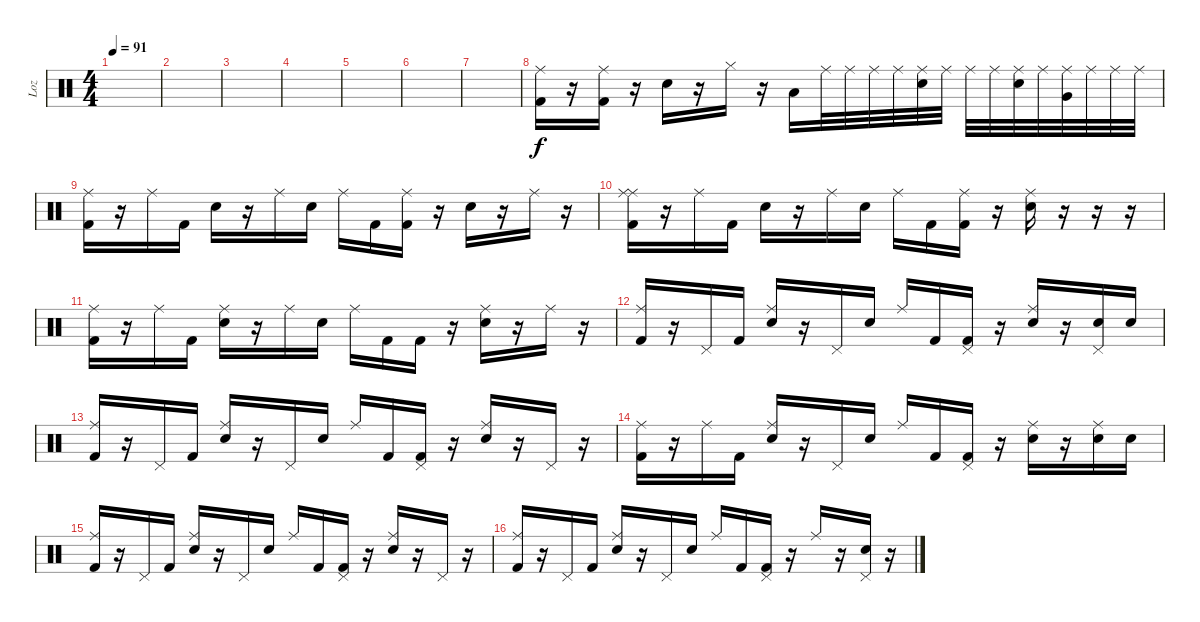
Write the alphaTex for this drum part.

\track ("Loz" "Loz") {instrument percussion}
\staff {score}
\articulation defaults
\ts (4 4)
\tempo 91
\clef neutral
\ks c
|
|
|
|
|
|
|
("Ride (middle)" "Kick (hit) 2").16 r.16 ("Ride (middle)" "Kick (hit) 2").16 r.16 "Electric Snare (hit)".16 r.16 "Hi-Hat (closed)".16 r.16 "Low Tom (hit)".16 "Ride (middle)".32 "Ride (middle)".32 "Ride (middle)".32 "Ride (middle)".32 ("Ride (middle)" "Electric Snare (hit)").32 "Ride (middle)".32 "Ride (middle)".32 "Ride (middle)".32 ("Ride (middle)" "Electric Snare (hit)").32 "Ride (middle)".32 ("Ride (middle)" "Very Low Tom (hit)").32 "Ride (middle)".32 "Ride (middle)".32 "Ride (middle)".32 |
("Ride (middle)" "Kick (hit) 2").16 r.16 "Ride (middle)".16 "Kick (hit) 2".16 "Electric Snare (hit)".16 r.16 "Ride (middle)".16 "Electric Snare (hit)".16 "Ride (middle)".16 "Kick (hit) 2".16 ("Ride (middle)" "Kick (hit) 2").16 r.16 "Electric Snare (hit)".16 r.16 "Ride (middle)".16 r.16 |
("Ride (middle)" "Ride (middle)" "Kick (hit) 2").16 r.16 "Ride (middle)".16 "Kick (hit) 2".16 "Electric Snare (hit)".16 r.16 "Ride (middle)".16 "Electric Snare (hit)".16 "Ride (middle)".16 "Kick (hit) 2".16 ("Ride (middle)" "Kick (hit) 2").16 r.16 ("Ride (middle)" "Electric Snare (hit)").16 r.16 r.16 r.16 |
("Ride (middle)" "Kick (hit) 2").16 r.16 "Ride (middle)".16 "Kick (hit) 2".16 ("Ride (middle)" "Electric Snare (hit)").16 r.16 "Ride (middle)".16 "Electric Snare (hit)".16 "Ride (middle)".16 "Kick (hit) 2".16 "Kick (hit) 2".16 r.16 ("Ride (middle)" "Electric Snare (hit)").16 r.16 "Ride (middle)".16 r.16 |
("Ride (middle)" "Kick (hit) 2").16 r.16 "Pedal Hi-Hat (hit)".16 "Kick (hit) 2".16 ("Ride (middle)" "Electric Snare (hit)").16 r.16 "Pedal Hi-Hat (hit)".16 "Electric Snare (hit)".16 "Ride (middle)".16 "Kick (hit) 2".16 ("Pedal Hi-Hat (hit)" "Kick (hit) 2").16 r.16 ("Ride (middle)" "Electric Snare (hit)").16 r.16 ("Pedal Hi-Hat (hit)" "Electric Snare (hit)").16 "Electric Snare (hit)".16 |
("Ride (middle)" "Kick (hit) 2").16 r.16 "Pedal Hi-Hat (hit)".16 "Kick (hit) 2".16 ("Ride (middle)" "Electric Snare (hit)").16 r.16 "Pedal Hi-Hat (hit)".16 "Electric Snare (hit)".16 "Ride (middle)".16 "Kick (hit) 2".16 ("Pedal Hi-Hat (hit)" "Kick (hit) 2").16 r.16 ("Ride (middle)" "Electric Snare (hit)").16 r.16 "Pedal Hi-Hat (hit)".16 r.16 |
("Ride (middle)" "Kick (hit) 2").16 r.16 "Ride (middle)".16 "Kick (hit) 2".16 ("Ride (middle)" "Electric Snare (hit)").16 r.16 "Pedal Hi-Hat (hit)".16 "Electric Snare (hit)".16 "Ride (middle)".16 "Kick (hit) 2".16 ("Pedal Hi-Hat (hit)" "Kick (hit) 2").16 r.16 ("Ride (middle)" "Electric Snare (hit)").16 r.16 ("Ride (middle)" "Electric Snare (hit)").16 "Electric Snare (hit)".16 |
("Ride (middle)" "Kick (hit) 2").16 r.16 "Pedal Hi-Hat (hit)".16 "Kick (hit) 2".16 ("Ride (middle)" "Electric Snare (hit)").16 r.16 "Pedal Hi-Hat (hit)".16 "Electric Snare (hit)".16 "Ride (middle)".16 "Kick (hit) 2".16 ("Pedal Hi-Hat (hit)" "Kick (hit) 2").16 r.16 ("Ride (middle)" "Electric Snare (hit)").16 r.16 "Pedal Hi-Hat (hit)".16 r.16 |
("Ride (middle)" "Kick (hit) 2").16 r.16 "Pedal Hi-Hat (hit)".16 "Kick (hit) 2".16 ("Ride (middle)" "Electric Snare (hit)").16 r.16 "Pedal Hi-Hat (hit)".16 "Electric Snare (hit)".16 "Ride (middle)".16 "Kick (hit) 2".16 ("Pedal Hi-Hat (hit)" "Kick (hit) 2").16 r.16 "Ride (middle)".16 r.16 ("Pedal Hi-Hat (hit)" "Electric Snare (hit)").16 r.16
